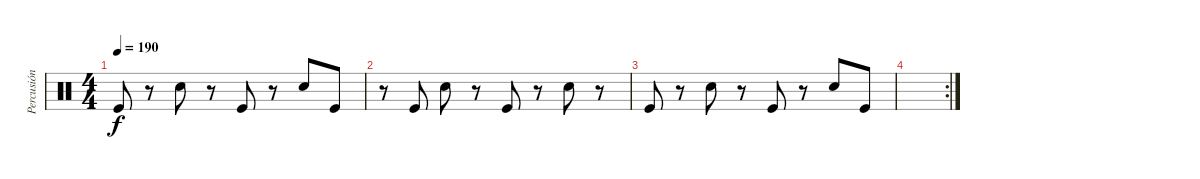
\track ("Percusión" "Percusión") {instrument percussion}
\staff {score}
\articulation defaults
\ts (4 4)
\tempo 190
\clef neutral
\ks c "Kick (hit)".8{dy f}
r.8 "Snare (hit) 2".8 r.8 "Kick (hit)".8 r.8 "Snare (hit) 2".8 "Kick (hit)".8 |
r.8 "Kick (hit)".8 "Snare (hit) 2".8 r.8 "Kick (hit)".8 r.8 "Snare (hit) 2".8 r.8 |
"Kick (hit)".8 r.8 "Snare (hit) 2".8 r.8 "Kick (hit)".8 r.8 "Snare (hit) 2".8 "Kick (hit)".8 |
\rc 2
